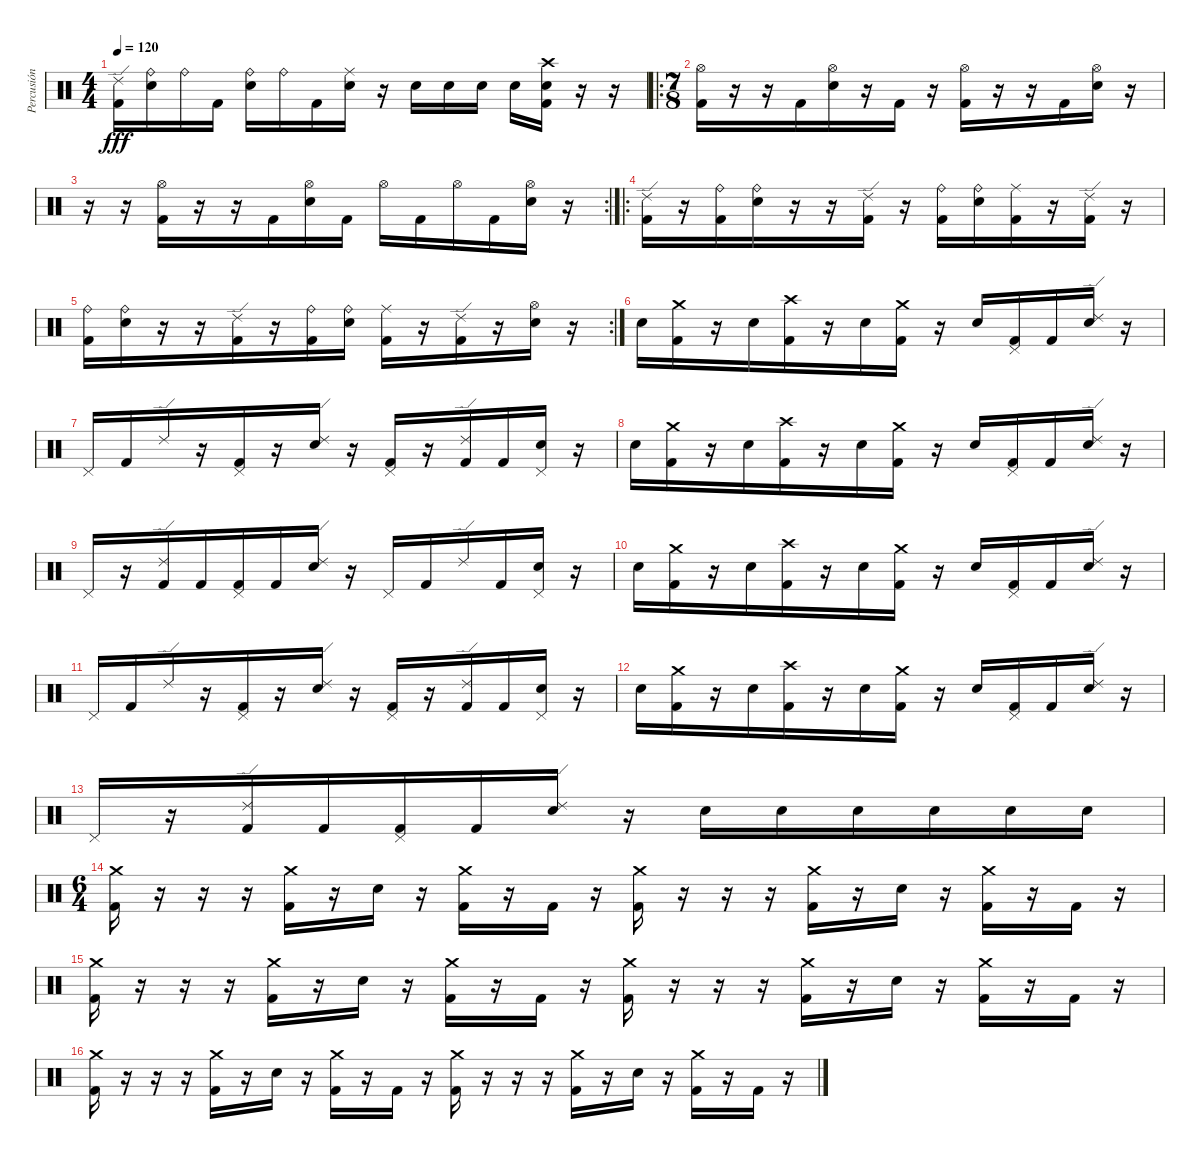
\track ("Percusión" "Percusión") {instrument percussion}
\staff {score}
\articulation defaults
\ts (4 4)
\tempo 120
\clef neutral
\ks c
("Ride (edge) 2" "Kick (hit) 2").16{dy fff} ("Ride (bell)" "Electric Snare (hit)").16 "Ride (bell)".16 "Kick (hit) 2".16 ("Ride (bell)" "Electric Snare (hit)").16 "Ride (bell)".16 "Kick (hit) 2".16 ("Ride (middle)" "Electric Snare (hit)").16 r.16 "Electric Snare (hit)".16 "Electric Snare (hit)".16 "Electric Snare (hit)".16 "Electric Snare (hit)".16 ("Crash high (hit)" "Electric Snare (hit)" "Kick (hit) 2").16 r.16 r.16 |
\ro
\ts (7 8)
("Hi-Hat (open)" "Kick (hit) 2").16 r.16 r.16 "Kick (hit) 2".16 ("Hi-Hat (open)" "Electric Snare (hit)").16 r.16 "Kick (hit) 2".16 r.16 ("Hi-Hat (open)" "Kick (hit) 2").16 r.16 r.16 "Kick (hit) 2".16 ("Hi-Hat (open)" "Electric Snare (hit)").16 r.16 |
\rc 2
r.16 r.16 ("Hi-Hat (open)" "Kick (hit) 2").16 r.16 r.16 "Kick (hit) 2".16 ("Hi-Hat (open)" "Electric Snare (hit)").16 "Kick (hit) 2".16 "Hi-Hat (open)".16 "Kick (hit) 2".16 "Hi-Hat (open)".16 "Kick (hit) 2".16 ("Hi-Hat (open)" "Electric Snare (hit)").16 r.16 |
\ro
("Ride (edge) 2" "Kick (hit) 2").16 r.16 ("Ride (bell)" "Kick (hit) 2").16 ("Ride (bell)" "Electric Snare (hit)").16 r.16 r.16 ("Ride (edge) 2" "Kick (hit) 2").16 r.16 ("Ride (bell)" "Kick (hit) 2").16 ("Ride (bell)" "Electric Snare (hit)").16 ("Ride (middle)" "Kick (hit) 2").16 r.16 ("Ride (edge) 2" "Kick (hit) 2").16 r.16 |
\rc 2
("Ride (bell)" "Kick (hit) 2").16 ("Ride (bell)" "Electric Snare (hit)").16 r.16 r.16 ("Ride (edge) 2" "Kick (hit) 2").16 r.16 ("Ride (bell)" "Kick (hit) 2").16 ("Ride (bell)" "Electric Snare (hit)").16 ("Ride (middle)" "Kick (hit) 2").16 r.16 ("Ride (edge) 2" "Kick (hit) 2").16 r.16 ("Hi-Hat (open)" "Electric Snare (hit)").16 r.16 |
"Electric Snare (hit)".16 ("Crash medium (hit)" "Kick (hit) 2").16 r.16 "Electric Snare (hit)".16 ("Crash high (hit)" "Kick (hit) 2").16 r.16 "Electric Snare (hit)".16 ("Crash medium (hit)" "Kick (hit) 2").16 r.16 "Electric Snare (hit)".16 ("Pedal Hi-Hat (hit)" "Kick (hit) 2").16 "Kick (hit) 2".16 ("Ride (edge) 2" "Electric Snare (hit)").16 r.16 |
"Pedal Hi-Hat (hit)".16 "Kick (hit) 2".16 "Ride (edge) 2".16 r.16 ("Pedal Hi-Hat (hit)" "Kick (hit) 2").16 r.16 ("Ride (edge) 2" "Electric Snare (hit)").16 r.16 ("Pedal Hi-Hat (hit)" "Kick (hit) 2").16 r.16 ("Ride (edge) 2" "Kick (hit) 2").16 "Kick (hit) 2".16 ("Pedal Hi-Hat (hit)" "Electric Snare (hit)").16 r.16 |
"Electric Snare (hit)".16 ("Crash medium (hit)" "Kick (hit) 2").16 r.16 "Electric Snare (hit)".16 ("Crash high (hit)" "Kick (hit) 2").16 r.16 "Electric Snare (hit)".16 ("Crash medium (hit)" "Kick (hit) 2").16 r.16 "Electric Snare (hit)".16 ("Pedal Hi-Hat (hit)" "Kick (hit) 2").16 "Kick (hit) 2".16 ("Ride (edge) 2" "Electric Snare (hit)").16 r.16 |
"Pedal Hi-Hat (hit)".16 r.16 ("Ride (edge) 2" "Kick (hit) 2").16 "Kick (hit) 2".16 ("Pedal Hi-Hat (hit)" "Kick (hit) 2").16 "Kick (hit) 2".16 ("Ride (edge) 2" "Electric Snare (hit)").16 r.16 "Pedal Hi-Hat (hit)".16 "Kick (hit) 2".16 "Ride (edge) 2".16 "Kick (hit) 2".16 ("Pedal Hi-Hat (hit)" "Electric Snare (hit)").16 r.16 |
"Electric Snare (hit)".16 ("Crash medium (hit)" "Kick (hit) 2").16 r.16 "Electric Snare (hit)".16 ("Crash high (hit)" "Kick (hit) 2").16 r.16 "Electric Snare (hit)".16 ("Crash medium (hit)" "Kick (hit) 2").16 r.16 "Electric Snare (hit)".16 ("Pedal Hi-Hat (hit)" "Kick (hit) 2").16 "Kick (hit) 2".16 ("Ride (edge) 2" "Electric Snare (hit)").16 r.16 |
"Pedal Hi-Hat (hit)".16 "Kick (hit) 2".16 "Ride (edge) 2".16 r.16 ("Pedal Hi-Hat (hit)" "Kick (hit) 2").16 r.16 ("Ride (edge) 2" "Electric Snare (hit)").16 r.16 ("Pedal Hi-Hat (hit)" "Kick (hit) 2").16 r.16 ("Ride (edge) 2" "Kick (hit) 2").16 "Kick (hit) 2".16 ("Pedal Hi-Hat (hit)" "Electric Snare (hit)").16 r.16 |
"Electric Snare (hit)".16 ("Crash medium (hit)" "Kick (hit) 2").16 r.16 "Electric Snare (hit)".16 ("Crash high (hit)" "Kick (hit) 2").16 r.16 "Electric Snare (hit)".16 ("Crash medium (hit)" "Kick (hit) 2").16 r.16 "Electric Snare (hit)".16 ("Pedal Hi-Hat (hit)" "Kick (hit) 2").16 "Kick (hit) 2".16 ("Ride (edge) 2" "Electric Snare (hit)").16 r.16 |
"Pedal Hi-Hat (hit)".16 r.16 ("Ride (edge) 2" "Kick (hit) 2").16 "Kick (hit) 2".16 ("Pedal Hi-Hat (hit)" "Kick (hit) 2").16 "Kick (hit) 2".16 ("Ride (edge) 2" "Electric Snare (hit)").16 r.16 "Electric Snare (hit)".16 "Electric Snare (hit)".16 "Electric Snare (hit)".16 "Electric Snare (hit)".16 "Electric Snare (hit)".16 "Electric Snare (hit)".16 |
\ts (6 4)
("Crash medium (hit)" "Kick (hit) 2").16 r.16 r.16 r.16 ("Crash medium (hit)" "Kick (hit) 2").16 r.16 "Electric Snare (hit)".16 r.16 ("Crash medium (hit)" "Kick (hit) 2").16 r.16 "Kick (hit) 2".16 r.16 ("Crash medium (hit)" "Kick (hit) 2").16 r.16 r.16 r.16 ("Crash medium (hit)" "Kick (hit) 2").16 r.16 "Electric Snare (hit)".16 r.16 ("Crash medium (hit)" "Kick (hit) 2").16 r.16 "Kick (hit) 2".16 r.16 |
("Crash medium (hit)" "Kick (hit) 2").16 r.16 r.16 r.16 ("Crash medium (hit)" "Kick (hit) 2").16 r.16 "Electric Snare (hit)".16 r.16 ("Crash medium (hit)" "Kick (hit) 2").16 r.16 "Kick (hit) 2".16 r.16 ("Crash medium (hit)" "Kick (hit) 2").16 r.16 r.16 r.16 ("Crash medium (hit)" "Kick (hit) 2").16 r.16 "Electric Snare (hit)".16 r.16 ("Crash medium (hit)" "Kick (hit) 2").16 r.16 "Kick (hit) 2".16 r.16 |
("Crash medium (hit)" "Kick (hit) 2").16 r.16 r.16 r.16 ("Crash medium (hit)" "Kick (hit) 2").16 r.16 "Electric Snare (hit)".16 r.16 ("Crash medium (hit)" "Kick (hit) 2").16 r.16 "Kick (hit) 2".16 r.16 ("Crash medium (hit)" "Kick (hit) 2").16 r.16 r.16 r.16 ("Crash medium (hit)" "Kick (hit) 2").16 r.16 "Electric Snare (hit)".16 r.16 ("Crash medium (hit)" "Kick (hit) 2").16 r.16 "Kick (hit) 2".16 r.16
